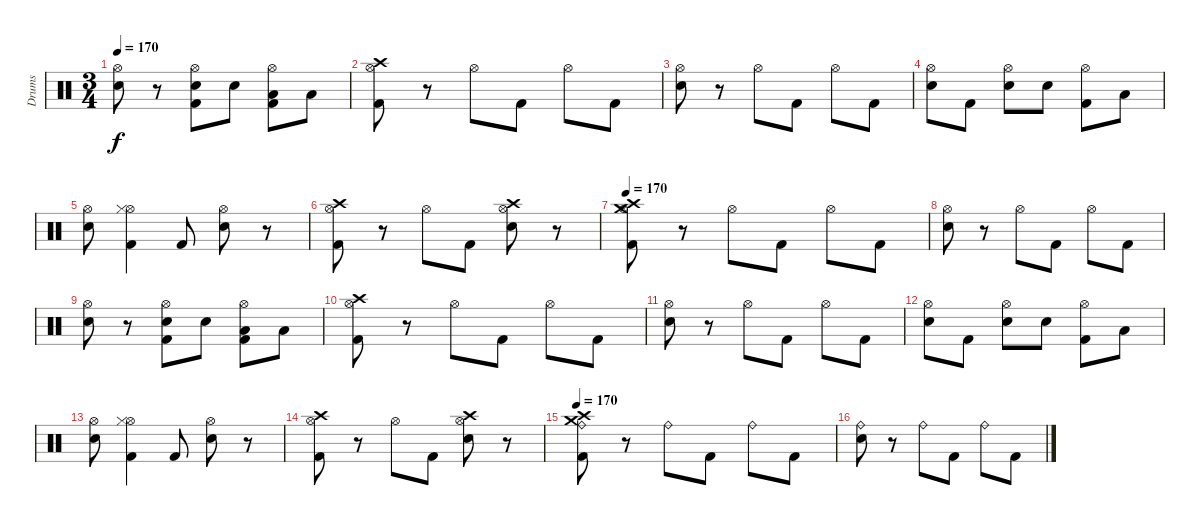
\track ("Drums" "Drums") {instrument percussion}
\staff {score}
\articulation defaults
\ts (3 4)
\tempo 170
\clef neutral
\ks c
("Hi-Hat (open)" "Electric Snare (hit)").8{dy f} r.8 ("Hi-Hat (open)" "Electric Snare (hit)" "Kick (hit) 2").8 "Electric Snare (hit)".8 ("Hi-Hat (open)" "Low Tom (hit)" "Kick (hit) 2").8 "Low Tom (hit)".8 |
("Hi-Hat (open)" "Crash high (hit)" "Kick (hit) 2").8 r.8 "Hi-Hat (open)".8 "Kick (hit) 2".8 "Hi-Hat (open)".8 "Kick (hit) 2".8 |
("Hi-Hat (open)" "Electric Snare (hit)").8 r.8 "Hi-Hat (open)".8 "Kick (hit) 2".8 "Hi-Hat (open)".8 "Kick (hit) 2".8 |
("Hi-Hat (open)" "Electric Snare (hit)").8 "Kick (hit) 2".8 ("Hi-Hat (open)" "Electric Snare (hit)").8 "Electric Snare (hit)".8 ("Hi-Hat (open)" "Kick (hit) 2").8 "Low Tom (hit)".8 |
("Hi-Hat (open)" "Electric Snare (hit)").8 ("Hi-Hat (open)" "Hi-Hat (closed)" "Kick (hit) 2").4 "Kick (hit) 2".8 ("Hi-Hat (open)" "Electric Snare (hit)").8 r.8 |
("Hi-Hat (open)" "Crash high (hit)" "Kick (hit) 2").8 r.8 "Hi-Hat (open)".8 "Kick (hit) 2".8 ("Hi-Hat (open)" "Electric Snare (hit)" "Crash high (hit)").8 r.8 |
\tempo 170
("Hi-Hat (open)" "Crash high (hit)" "Crash medium (hit)" "Kick (hit) 2").8 r.8 "Hi-Hat (open)".8 "Kick (hit) 2".8 "Hi-Hat (open)".8 "Kick (hit) 2".8 |
("Hi-Hat (open)" "Electric Snare (hit)").8 r.8 "Hi-Hat (open)".8 "Kick (hit) 2".8 "Hi-Hat (open)".8 "Kick (hit) 2".8 |
("Hi-Hat (open)" "Electric Snare (hit)").8 r.8 ("Hi-Hat (open)" "Electric Snare (hit)" "Kick (hit) 2").8 "Electric Snare (hit)".8 ("Hi-Hat (open)" "Low Tom (hit)" "Kick (hit) 2").8 "Low Tom (hit)".8 |
("Hi-Hat (open)" "Crash high (hit)" "Kick (hit) 2").8 r.8 "Hi-Hat (open)".8 "Kick (hit) 2".8 "Hi-Hat (open)".8 "Kick (hit) 2".8 |
("Hi-Hat (open)" "Electric Snare (hit)").8 r.8 "Hi-Hat (open)".8 "Kick (hit) 2".8 "Hi-Hat (open)".8 "Kick (hit) 2".8 |
("Hi-Hat (open)" "Electric Snare (hit)").8 "Kick (hit) 2".8 ("Hi-Hat (open)" "Electric Snare (hit)").8 "Electric Snare (hit)".8 ("Hi-Hat (open)" "Kick (hit) 2").8 "Low Tom (hit)".8 |
("Hi-Hat (open)" "Electric Snare (hit)").8 ("Hi-Hat (open)" "Hi-Hat (closed)" "Kick (hit) 2").4 "Kick (hit) 2".8 ("Hi-Hat (open)" "Electric Snare (hit)").8 r.8 |
("Hi-Hat (open)" "Crash high (hit)" "Kick (hit) 2").8 r.8 "Hi-Hat (open)".8 "Kick (hit) 2".8 ("Hi-Hat (open)" "Electric Snare (hit)" "Crash high (hit)").8 r.8 |
\tempo 170
("Ride (bell)" "Crash high (hit)" "Crash medium (hit)" "Kick (hit) 2").8 r.8 "Ride (bell)".8 "Kick (hit) 2".8 "Ride (bell)".8 "Kick (hit) 2".8 |
("Ride (bell)" "Electric Snare (hit)").8 r.8 "Ride (bell)".8 "Kick (hit) 2".8 "Ride (bell)".8 "Kick (hit) 2".8
